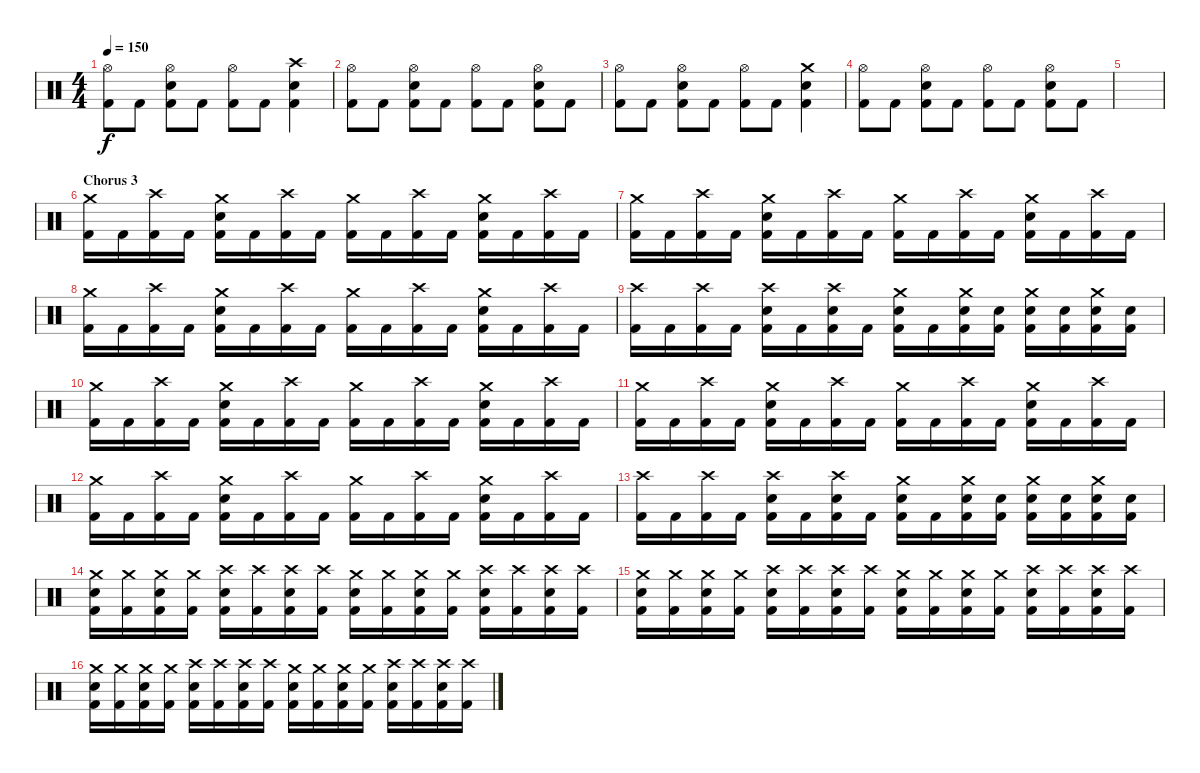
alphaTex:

\track "" {instrument percussion}
\staff {score}
\articulation defaults
\ts (4 4)
\tempo 150
\clef neutral
\ks c
("Hi-Hat (open)" "Kick (hit) 2").8{dy f} "Kick (hit) 2".8 ("Hi-Hat (open)" "Electric Snare (hit)" "Kick (hit) 2").8 "Kick (hit) 2".8 ("Hi-Hat (open)" "Kick (hit) 2").8 "Kick (hit) 2".8 ("Crash high (hit)" "Electric Snare (hit)" "Kick (hit) 2").4 |
("Hi-Hat (open)" "Kick (hit) 2").8 "Kick (hit) 2".8 ("Hi-Hat (open)" "Electric Snare (hit)" "Kick (hit) 2").8 "Kick (hit) 2".8 ("Hi-Hat (open)" "Kick (hit) 2").8 "Kick (hit) 2".8 ("Hi-Hat (open)" "Electric Snare (hit)" "Kick (hit) 2").8 "Kick (hit) 2".8 |
("Hi-Hat (open)" "Kick (hit) 2").8 "Kick (hit) 2".8 ("Hi-Hat (open)" "Electric Snare (hit)" "Kick (hit) 2").8 "Kick (hit) 2".8 ("Hi-Hat (open)" "Kick (hit) 2").8 "Kick (hit) 2".8 ("Crash medium (hit)" "Electric Snare (hit)" "Kick (hit) 2").4 |
("Hi-Hat (open)" "Kick (hit) 2").8 "Kick (hit) 2".8 ("Hi-Hat (open)" "Electric Snare (hit)" "Kick (hit) 2").8 "Kick (hit) 2".8 ("Hi-Hat (open)" "Kick (hit) 2").8 "Kick (hit) 2".8 ("Hi-Hat (open)" "Electric Snare (hit)" "Kick (hit) 2").8 "Kick (hit) 2".8 |
|
\section ("" "Chorus 3")
("Crash medium (hit)" "Kick (hit) 2").16 "Kick (hit) 2".16 ("Crash high (hit)" "Kick (hit) 2").16 "Kick (hit) 2".16 ("Crash medium (hit)" "Electric Snare (hit)" "Kick (hit) 2").16 "Kick (hit) 2".16 ("Crash high (hit)" "Kick (hit) 2").16 "Kick (hit) 2".16 ("Crash medium (hit)" "Kick (hit) 2").16 "Kick (hit) 2".16 ("Crash high (hit)" "Kick (hit) 2").16 "Kick (hit) 2".16 ("Crash medium (hit)" "Electric Snare (hit)" "Kick (hit) 2").16 "Kick (hit) 2".16 ("Crash high (hit)" "Kick (hit) 2").16 "Kick (hit) 2".16 |
("Crash medium (hit)" "Kick (hit) 2").16 "Kick (hit) 2".16 ("Crash high (hit)" "Kick (hit) 2").16 "Kick (hit) 2".16 ("Crash medium (hit)" "Electric Snare (hit)" "Kick (hit) 2").16 "Kick (hit) 2".16 ("Crash high (hit)" "Kick (hit) 2").16 "Kick (hit) 2".16 ("Crash medium (hit)" "Kick (hit) 2").16 "Kick (hit) 2".16 ("Crash high (hit)" "Kick (hit) 2").16 "Kick (hit) 2".16 ("Crash medium (hit)" "Electric Snare (hit)" "Kick (hit) 2").16 "Kick (hit) 2".16 ("Crash high (hit)" "Kick (hit) 2").16 "Kick (hit) 2".16 |
("Crash medium (hit)" "Kick (hit) 2").16 "Kick (hit) 2".16 ("Crash high (hit)" "Kick (hit) 2").16 "Kick (hit) 2".16 ("Crash medium (hit)" "Electric Snare (hit)" "Kick (hit) 2").16 "Kick (hit) 2".16 ("Crash high (hit)" "Kick (hit) 2").16 "Kick (hit) 2".16 ("Crash medium (hit)" "Kick (hit) 2").16 "Kick (hit) 2".16 ("Crash high (hit)" "Kick (hit) 2").16 "Kick (hit) 2".16 ("Crash medium (hit)" "Electric Snare (hit)" "Kick (hit) 2").16 "Kick (hit) 2".16 ("Crash high (hit)" "Kick (hit) 2").16 "Kick (hit) 2".16 |
("Crash high (hit)" "Kick (hit) 2").16 "Kick (hit) 2".16 ("Crash high (hit)" "Kick (hit) 2").16 "Kick (hit) 2".16 ("Crash high (hit)" "Electric Snare (hit)" "Kick (hit) 2").16 "Kick (hit) 2".16 ("Crash high (hit)" "Electric Snare (hit)" "Kick (hit) 2").16 "Kick (hit) 2".16 ("Crash medium (hit)" "Electric Snare (hit)" "Kick (hit) 2").16 "Kick (hit) 2".16 ("Crash medium (hit)" "Electric Snare (hit)" "Kick (hit) 2").16 ("Electric Snare (hit)" "Kick (hit) 2").16 ("Crash medium (hit)" "Electric Snare (hit)" "Kick (hit) 2").16 ("Electric Snare (hit)" "Kick (hit) 2").16 ("Crash medium (hit)" "Electric Snare (hit)" "Kick (hit) 2").16 ("Electric Snare (hit)" "Kick (hit) 2").16 |
("Crash medium (hit)" "Kick (hit) 2").16 "Kick (hit) 2".16 ("Crash high (hit)" "Kick (hit) 2").16 "Kick (hit) 2".16 ("Crash medium (hit)" "Electric Snare (hit)" "Kick (hit) 2").16 "Kick (hit) 2".16 ("Crash high (hit)" "Kick (hit) 2").16 "Kick (hit) 2".16 ("Crash medium (hit)" "Kick (hit) 2").16 "Kick (hit) 2".16 ("Crash high (hit)" "Kick (hit) 2").16 "Kick (hit) 2".16 ("Crash medium (hit)" "Electric Snare (hit)" "Kick (hit) 2").16 "Kick (hit) 2".16 ("Crash high (hit)" "Kick (hit) 2").16 "Kick (hit) 2".16 |
("Crash medium (hit)" "Kick (hit) 2").16 "Kick (hit) 2".16 ("Crash high (hit)" "Kick (hit) 2").16 "Kick (hit) 2".16 ("Crash medium (hit)" "Electric Snare (hit)" "Kick (hit) 2").16 "Kick (hit) 2".16 ("Crash high (hit)" "Kick (hit) 2").16 "Kick (hit) 2".16 ("Crash medium (hit)" "Kick (hit) 2").16 "Kick (hit) 2".16 ("Crash high (hit)" "Kick (hit) 2").16 "Kick (hit) 2".16 ("Crash medium (hit)" "Electric Snare (hit)" "Kick (hit) 2").16 "Kick (hit) 2".16 ("Crash high (hit)" "Kick (hit) 2").16 "Kick (hit) 2".16 |
("Crash medium (hit)" "Kick (hit) 2").16 "Kick (hit) 2".16 ("Crash high (hit)" "Kick (hit) 2").16 "Kick (hit) 2".16 ("Crash medium (hit)" "Electric Snare (hit)" "Kick (hit) 2").16 "Kick (hit) 2".16 ("Crash high (hit)" "Kick (hit) 2").16 "Kick (hit) 2".16 ("Crash medium (hit)" "Kick (hit) 2").16 "Kick (hit) 2".16 ("Crash high (hit)" "Kick (hit) 2").16 "Kick (hit) 2".16 ("Crash medium (hit)" "Electric Snare (hit)" "Kick (hit) 2").16 "Kick (hit) 2".16 ("Crash high (hit)" "Kick (hit) 2").16 "Kick (hit) 2".16 |
("Crash high (hit)" "Kick (hit) 2").16 "Kick (hit) 2".16 ("Crash high (hit)" "Kick (hit) 2").16 "Kick (hit) 2".16 ("Crash high (hit)" "Electric Snare (hit)" "Kick (hit) 2").16 "Kick (hit) 2".16 ("Crash high (hit)" "Electric Snare (hit)" "Kick (hit) 2").16 "Kick (hit) 2".16 ("Crash medium (hit)" "Electric Snare (hit)" "Kick (hit) 2").16 "Kick (hit) 2".16 ("Crash medium (hit)" "Electric Snare (hit)" "Kick (hit) 2").16 ("Electric Snare (hit)" "Kick (hit) 2").16 ("Crash medium (hit)" "Electric Snare (hit)" "Kick (hit) 2").16 ("Electric Snare (hit)" "Kick (hit) 2").16 ("Crash medium (hit)" "Electric Snare (hit)" "Kick (hit) 2").16 ("Electric Snare (hit)" "Kick (hit) 2").16 |
("Crash medium (hit)" "Electric Snare (hit)" "Kick (hit) 2").16 ("Crash medium (hit)" "Kick (hit) 2").16 ("Crash medium (hit)" "Electric Snare (hit)" "Kick (hit) 2").16 ("Crash medium (hit)" "Kick (hit) 2").16 ("Crash high (hit)" "Electric Snare (hit)" "Kick (hit) 2").16 ("Crash high (hit)" "Kick (hit) 2").16 ("Crash high (hit)" "Electric Snare (hit)" "Kick (hit) 2").16 ("Crash high (hit)" "Kick (hit) 2").16 ("Crash medium (hit)" "Electric Snare (hit)" "Kick (hit) 2").16 ("Crash medium (hit)" "Kick (hit) 2").16 ("Crash medium (hit)" "Electric Snare (hit)" "Kick (hit) 2").16 ("Crash medium (hit)" "Kick (hit) 2").16 ("Crash high (hit)" "Electric Snare (hit)" "Kick (hit) 2").16 ("Crash high (hit)" "Kick (hit) 2").16 ("Crash high (hit)" "Electric Snare (hit)" "Kick (hit) 2").16 ("Crash high (hit)" "Kick (hit) 2").16 |
("Crash medium (hit)" "Electric Snare (hit)" "Kick (hit) 2").16 ("Crash medium (hit)" "Kick (hit) 2").16 ("Crash medium (hit)" "Electric Snare (hit)" "Kick (hit) 2").16 ("Crash medium (hit)" "Kick (hit) 2").16 ("Crash high (hit)" "Electric Snare (hit)" "Kick (hit) 2").16 ("Crash high (hit)" "Kick (hit) 2").16 ("Crash high (hit)" "Electric Snare (hit)" "Kick (hit) 2").16 ("Crash high (hit)" "Kick (hit) 2").16 ("Crash medium (hit)" "Electric Snare (hit)" "Kick (hit) 2").16 ("Crash medium (hit)" "Kick (hit) 2").16 ("Crash medium (hit)" "Electric Snare (hit)" "Kick (hit) 2").16 ("Crash medium (hit)" "Kick (hit) 2").16 ("Crash high (hit)" "Electric Snare (hit)" "Kick (hit) 2").16 ("Crash high (hit)" "Kick (hit) 2").16 ("Crash high (hit)" "Electric Snare (hit)" "Kick (hit) 2").16 ("Crash high (hit)" "Kick (hit) 2").16 |
("Crash medium (hit)" "Electric Snare (hit)" "Kick (hit) 2").16 ("Crash medium (hit)" "Kick (hit) 2").16 ("Crash medium (hit)" "Electric Snare (hit)" "Kick (hit) 2").16 ("Crash medium (hit)" "Kick (hit) 2").16 ("Crash high (hit)" "Electric Snare (hit)" "Kick (hit) 2").16 ("Crash high (hit)" "Kick (hit) 2").16 ("Crash high (hit)" "Electric Snare (hit)" "Kick (hit) 2").16 ("Crash high (hit)" "Kick (hit) 2").16 ("Crash medium (hit)" "Electric Snare (hit)" "Kick (hit) 2").16 ("Crash medium (hit)" "Kick (hit) 2").16 ("Crash medium (hit)" "Electric Snare (hit)" "Kick (hit) 2").16 ("Crash medium (hit)" "Kick (hit) 2").16 ("Crash high (hit)" "Electric Snare (hit)" "Kick (hit) 2").16 ("Crash high (hit)" "Kick (hit) 2").16 ("Crash high (hit)" "Electric Snare (hit)" "Kick (hit) 2").16 ("Crash high (hit)" "Kick (hit) 2").16
